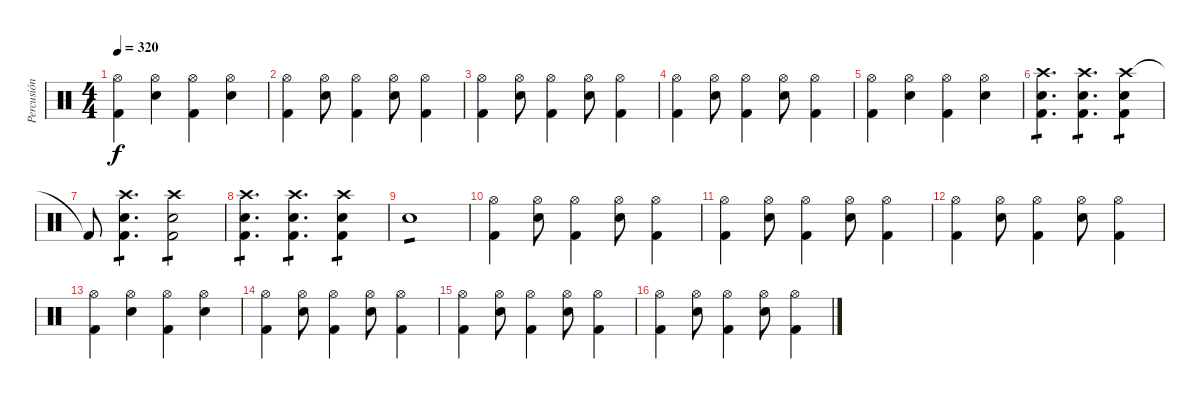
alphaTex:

\track ("Percusión" "Percusión") {instrument percussion}
\staff {score}
\articulation defaults
\ts (4 4)
\tempo 320
\clef neutral
\ks c
("Hi-Hat (open)" "Kick (hit) 2").4{dy f} ("Hi-Hat (open)" "Electric Snare (hit)").4 ("Hi-Hat (open)" "Kick (hit) 2").4 ("Hi-Hat (open)" "Electric Snare (hit)").4 |
("Hi-Hat (open)" "Kick (hit) 2").4 ("Hi-Hat (open)" "Electric Snare (hit)").8 ("Hi-Hat (open)" "Kick (hit) 2").4 ("Hi-Hat (open)" "Electric Snare (hit)").8 ("Hi-Hat (open)" "Kick (hit) 2").4 |
("Hi-Hat (open)" "Kick (hit) 2").4 ("Hi-Hat (open)" "Electric Snare (hit)").8 ("Hi-Hat (open)" "Kick (hit) 2").4 ("Hi-Hat (open)" "Electric Snare (hit)").8 ("Hi-Hat (open)" "Kick (hit) 2").4 |
("Hi-Hat (open)" "Kick (hit) 2").4 ("Hi-Hat (open)" "Electric Snare (hit)").8 ("Hi-Hat (open)" "Kick (hit) 2").4 ("Hi-Hat (open)" "Electric Snare (hit)").8 ("Hi-Hat (open)" "Kick (hit) 2").4 |
("Hi-Hat (open)" "Kick (hit) 2").4 ("Hi-Hat (open)" "Electric Snare (hit)").4 ("Hi-Hat (open)" "Kick (hit) 2").4 ("Hi-Hat (open)" "Electric Snare (hit)").4 |
("Crash high (hit)" "Electric Snare (hit)" "Kick (hit) 2").4{d tp 1} ("Crash high (hit)" "Electric Snare (hit)" "Kick (hit) 2").4{d tp 1} ("Crash high (hit)" "Electric Snare (hit)" "Kick (hit) 2").4{tp 1} |
"Kick (hit) 2"{t}.8 ("Crash high (hit)" "Electric Snare (hit)" "Kick (hit) 2").4{d tp 1} ("Crash high (hit)" "Electric Snare (hit)" "Kick (hit) 2").2{tp 1} |
("Crash high (hit)" "Electric Snare (hit)" "Kick (hit) 2").4{d tp 1} ("Crash high (hit)" "Electric Snare (hit)" "Kick (hit) 2").4{d tp 1} ("Crash high (hit)" "Electric Snare (hit)" "Kick (hit) 2").4{tp 1} |
"Electric Snare (hit)".1{tp 1} |
("Hi-Hat (open)" "Kick (hit) 2").4 ("Hi-Hat (open)" "Electric Snare (hit)").8 ("Hi-Hat (open)" "Kick (hit) 2").4 ("Hi-Hat (open)" "Electric Snare (hit)").8 ("Hi-Hat (open)" "Kick (hit) 2").4 |
("Hi-Hat (open)" "Kick (hit) 2").4 ("Hi-Hat (open)" "Electric Snare (hit)").8 ("Hi-Hat (open)" "Kick (hit) 2").4 ("Hi-Hat (open)" "Electric Snare (hit)").8 ("Hi-Hat (open)" "Kick (hit) 2").4 |
("Hi-Hat (open)" "Kick (hit) 2").4 ("Hi-Hat (open)" "Electric Snare (hit)").8 ("Hi-Hat (open)" "Kick (hit) 2").4 ("Hi-Hat (open)" "Electric Snare (hit)").8 ("Hi-Hat (open)" "Kick (hit) 2").4 |
("Hi-Hat (open)" "Kick (hit) 2").4 ("Hi-Hat (open)" "Electric Snare (hit)").4 ("Hi-Hat (open)" "Kick (hit) 2").4 ("Hi-Hat (open)" "Electric Snare (hit)").4 |
("Hi-Hat (open)" "Kick (hit) 2").4 ("Hi-Hat (open)" "Electric Snare (hit)").8 ("Hi-Hat (open)" "Kick (hit) 2").4 ("Hi-Hat (open)" "Electric Snare (hit)").8 ("Hi-Hat (open)" "Kick (hit) 2").4 |
("Hi-Hat (open)" "Kick (hit) 2").4 ("Hi-Hat (open)" "Electric Snare (hit)").8 ("Hi-Hat (open)" "Kick (hit) 2").4 ("Hi-Hat (open)" "Electric Snare (hit)").8 ("Hi-Hat (open)" "Kick (hit) 2").4 |
("Hi-Hat (open)" "Kick (hit) 2").4 ("Hi-Hat (open)" "Electric Snare (hit)").8 ("Hi-Hat (open)" "Kick (hit) 2").4 ("Hi-Hat (open)" "Electric Snare (hit)").8 ("Hi-Hat (open)" "Kick (hit) 2").4
